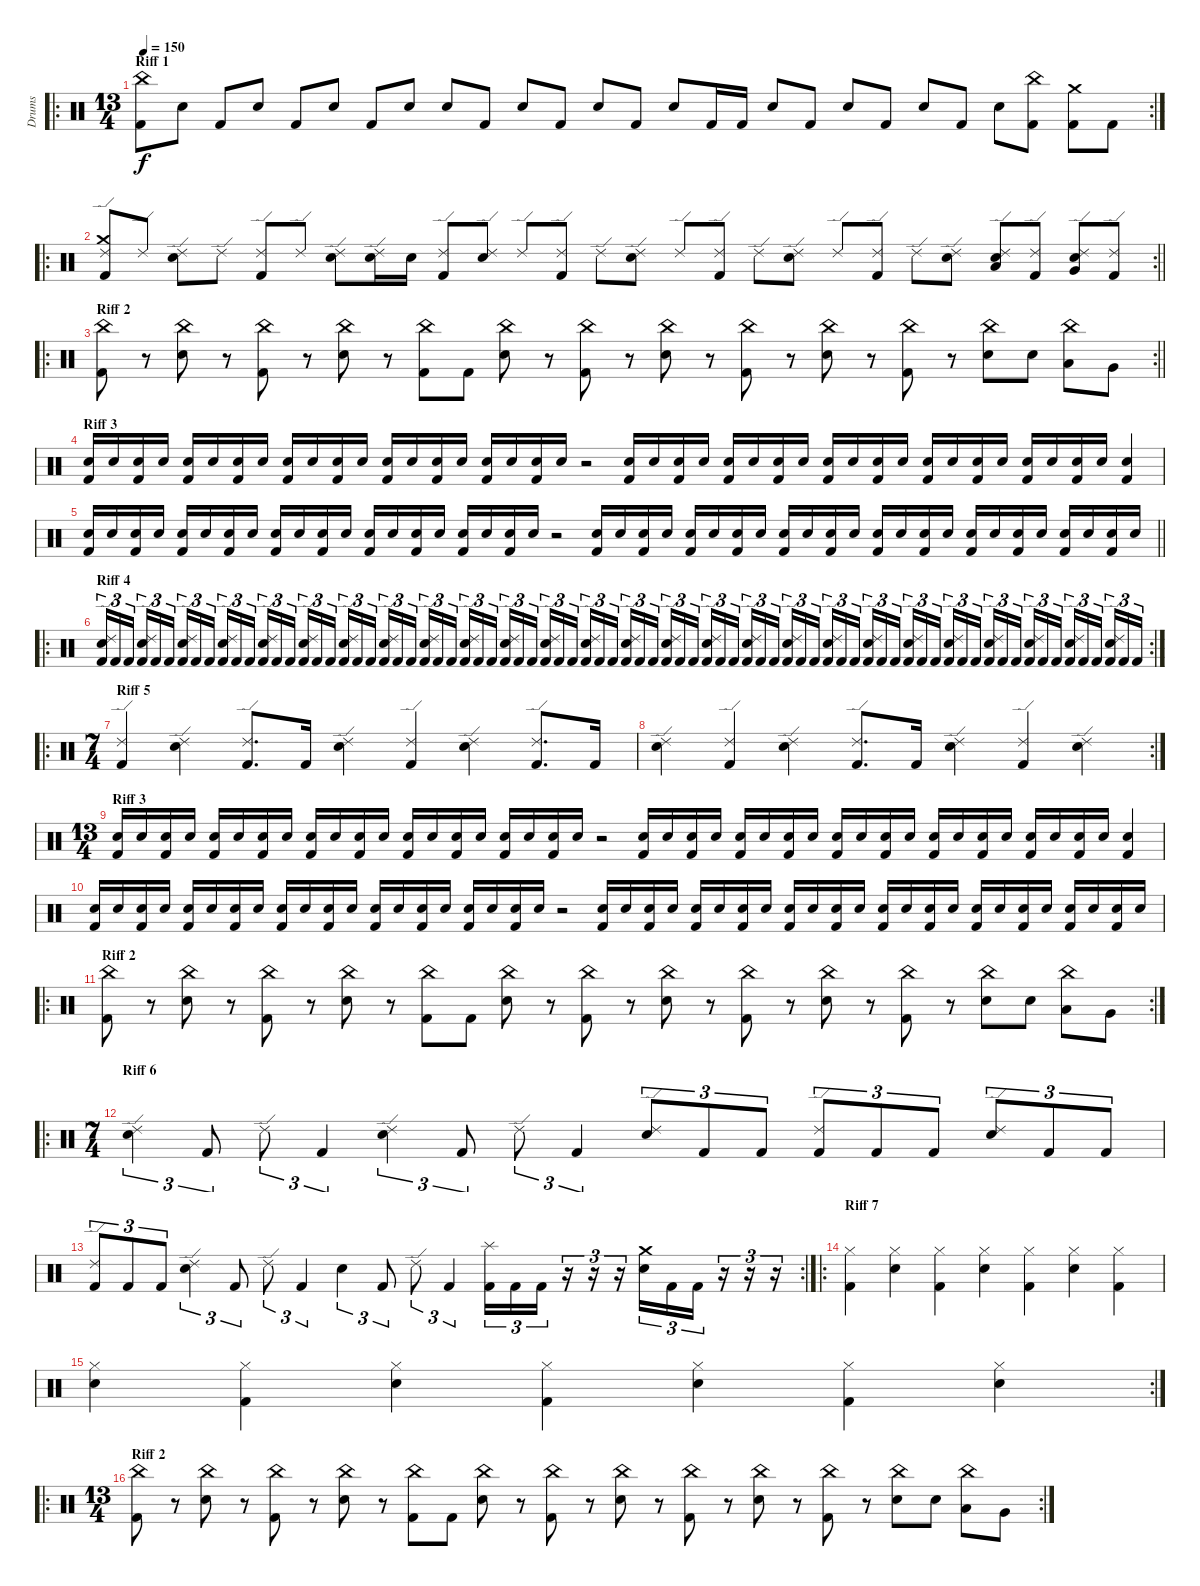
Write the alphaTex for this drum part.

\track ("Drums" "Drums") {instrument percussion}
\staff {score}
\articulation defaults
\ro
\rc 2
\ts (13 4)
\section ("" "Riff 1")
\tempo 150
\clef neutral
\ks c
("Kick (hit) 2" "China (hit)").8{dy f} "Snare (hit) 2".8 "Kick (hit) 2".8 "Snare (hit) 2".8 "Kick (hit) 2".8 "Snare (hit) 2".8 "Kick (hit) 2".8 "Snare (hit) 2".8 "Snare (hit) 2".8 "Kick (hit) 2".8 "Snare (hit) 2".8 "Kick (hit) 2".8 "Snare (hit) 2".8 "Kick (hit) 2".8 "Snare (hit) 2".8 "Kick (hit) 2".16 "Kick (hit) 2".16 "Snare (hit) 2".8 "Kick (hit) 2".8 "Snare (hit) 2".8 "Kick (hit) 2".8 "Snare (hit) 2".8 "Kick (hit) 2".8 "Snare (hit) 2".8 ("Kick (hit) 2" "China (hit)").8 ("Kick (hit) 2" "Crash medium (hit)").8 "Kick (hit) 2".8 |
\ro
\rc 2
\barLineRight lightlight
("Kick (hit) 2" "Ride (edge) 2" "Crash medium (hit)").8 "Ride (edge) 2".8 ("Snare (hit) 2" "Ride (edge) 2").8 "Ride (edge) 2".8 ("Kick (hit) 2" "Ride (edge) 2").8 "Ride (edge) 2".8 ("Snare (hit) 2" "Ride (edge) 2").8 ("Snare (hit) 2" "Ride (edge) 2").16 "Snare (hit) 2".16 ("Kick (hit) 2" "Ride (edge) 2").8 ("Snare (hit) 2" "Ride (edge) 2").8 "Ride (edge) 2".8 ("Kick (hit) 2" "Ride (edge) 2").8 "Ride (edge) 2".8 ("Snare (hit) 2" "Ride (edge) 2").8 "Ride (edge) 2".8 ("Kick (hit) 2" "Ride (edge) 2").8 "Ride (edge) 2".8 ("Snare (hit) 2" "Ride (edge) 2").8 "Ride (edge) 2".8 ("Kick (hit) 2" "Ride (edge) 2").8 "Ride (edge) 2".8 ("Snare (hit) 2" "Ride (edge) 2").8 ("Snare (hit) 2" "Ride (edge) 2" "Low Tom (hit)").8 ("Kick (hit) 2" "Ride (edge) 2").8 ("Snare (hit) 2" "Ride (edge) 2" "Very Low Tom (hit)").8 ("Kick (hit) 2" "Ride (edge) 2").8 |
\ro
\rc 2
\section ("" "Riff 2")
\barLineRight lightlight
("Kick (hit) 2" "China (hit)").8 r.8 ("Snare (hit) 2" "China (hit)").8 r.8 ("Kick (hit) 2" "China (hit)").8 r.8 ("Snare (hit) 2" "China (hit)").8 r.8 ("Kick (hit) 2" "China (hit)").8 "Kick (hit) 2".8 ("Snare (hit) 2" "China (hit)").8 r.8 ("Kick (hit) 2" "China (hit)").8 r.8 ("Snare (hit) 2" "China (hit)").8 r.8 ("Kick (hit) 2" "China (hit)").8 r.8 ("Snare (hit) 2" "China (hit)").8 r.8 ("Kick (hit) 2" "China (hit)").8 r.8 ("Snare (hit) 2" "China (hit)").8 "Snare (hit) 2".8 ("Low Tom (hit)" "China (hit)").8 "Very Low Tom (hit)".8 |
\section ("" "Riff 3")
("Kick (hit) 2" "Snare (hit) 2").16 "Snare (hit) 2".16 ("Kick (hit) 2" "Snare (hit) 2").16 "Snare (hit) 2".16 ("Kick (hit) 2" "Snare (hit) 2").16 "Snare (hit) 2".16 ("Kick (hit) 2" "Snare (hit) 2").16 "Snare (hit) 2".16 ("Kick (hit) 2" "Snare (hit) 2").16 "Snare (hit) 2".16 ("Kick (hit) 2" "Snare (hit) 2").16 "Snare (hit) 2".16 ("Kick (hit) 2" "Snare (hit) 2").16 "Snare (hit) 2".16 ("Kick (hit) 2" "Snare (hit) 2").16 "Snare (hit) 2".16 ("Kick (hit) 2" "Snare (hit) 2").16 "Snare (hit) 2".16 ("Kick (hit) 2" "Snare (hit) 2").16 "Snare (hit) 2".16 r.2 ("Kick (hit) 2" "Snare (hit) 2").16 "Snare (hit) 2".16 ("Kick (hit) 2" "Snare (hit) 2").16 "Snare (hit) 2".16 ("Kick (hit) 2" "Snare (hit) 2").16 "Snare (hit) 2".16 ("Kick (hit) 2" "Snare (hit) 2").16 "Snare (hit) 2".16 ("Kick (hit) 2" "Snare (hit) 2").16 "Snare (hit) 2".16 ("Kick (hit) 2" "Snare (hit) 2").16 "Snare (hit) 2".16 ("Kick (hit) 2" "Snare (hit) 2").16 "Snare (hit) 2".16 ("Kick (hit) 2" "Snare (hit) 2").16 "Snare (hit) 2".16 ("Kick (hit) 2" "Snare (hit) 2").16 "Snare (hit) 2".16 ("Kick (hit) 2" "Snare (hit) 2").16 "Snare (hit) 2".16 ("Kick (hit) 2" "Snare (hit) 2").4 |
\barLineRight lightlight
("Kick (hit) 2" "Snare (hit) 2").16 "Snare (hit) 2".16 ("Kick (hit) 2" "Snare (hit) 2").16 "Snare (hit) 2".16 ("Kick (hit) 2" "Snare (hit) 2").16 "Snare (hit) 2".16 ("Kick (hit) 2" "Snare (hit) 2").16 "Snare (hit) 2".16 ("Kick (hit) 2" "Snare (hit) 2").16 "Snare (hit) 2".16 ("Kick (hit) 2" "Snare (hit) 2").16 "Snare (hit) 2".16 ("Kick (hit) 2" "Snare (hit) 2").16 "Snare (hit) 2".16 ("Kick (hit) 2" "Snare (hit) 2").16 "Snare (hit) 2".16 ("Kick (hit) 2" "Snare (hit) 2").16 "Snare (hit) 2".16 ("Kick (hit) 2" "Snare (hit) 2").16 "Snare (hit) 2".16 r.2 ("Kick (hit) 2" "Snare (hit) 2").16 "Snare (hit) 2".16 ("Kick (hit) 2" "Snare (hit) 2").16 "Snare (hit) 2".16 ("Kick (hit) 2" "Snare (hit) 2").16 "Snare (hit) 2".16 ("Kick (hit) 2" "Snare (hit) 2").16 "Snare (hit) 2".16 ("Kick (hit) 2" "Snare (hit) 2").16 "Snare (hit) 2".16 ("Kick (hit) 2" "Snare (hit) 2").16 "Snare (hit) 2".16 ("Kick (hit) 2" "Snare (hit) 2").16 "Snare (hit) 2".16 ("Kick (hit) 2" "Snare (hit) 2").16 "Snare (hit) 2".16 ("Kick (hit) 2" "Snare (hit) 2").16 "Snare (hit) 2".16 ("Kick (hit) 2" "Snare (hit) 2").16 "Snare (hit) 2".16 ("Kick (hit) 2" "Snare (hit) 2").16 "Snare (hit) 2".16 ("Kick (hit) 2" "Snare (hit) 2").16 "Snare (hit) 2".16 |
\ro
\rc 2
\section ("" "Riff 4")
("Kick (hit) 2" "Snare (hit) 2" "Ride (edge) 2").16{tu (3 2)} "Kick (hit) 2".16{tu (3 2)} "Kick (hit) 2".16{tu (3 2)} ("Kick (hit) 2" "Snare (hit) 2" "Ride (edge) 2").16{tu (3 2)} "Kick (hit) 2".16{tu (3 2)} "Kick (hit) 2".16{tu (3 2)} ("Kick (hit) 2" "Snare (hit) 2" "Ride (edge) 2").16{tu (3 2)} "Kick (hit) 2".16{tu (3 2)} "Kick (hit) 2".16{tu (3 2)} ("Kick (hit) 2" "Snare (hit) 2" "Ride (edge) 2").16{tu (3 2)} "Kick (hit) 2".16{tu (3 2)} "Kick (hit) 2".16{tu (3 2)} ("Kick (hit) 2" "Snare (hit) 2" "Ride (edge) 2").16{tu (3 2)} "Kick (hit) 2".16{tu (3 2)} "Kick (hit) 2".16{tu (3 2)} ("Kick (hit) 2" "Snare (hit) 2" "Ride (edge) 2").16{tu (3 2)} "Kick (hit) 2".16{tu (3 2)} "Kick (hit) 2".16{tu (3 2)} ("Kick (hit) 2" "Snare (hit) 2" "Ride (edge) 2").16{tu (3 2)} "Kick (hit) 2".16{tu (3 2)} "Kick (hit) 2".16{tu (3 2)} ("Kick (hit) 2" "Snare (hit) 2" "Ride (edge) 2").16{tu (3 2)} "Kick (hit) 2".16{tu (3 2)} "Kick (hit) 2".16{tu (3 2)} ("Kick (hit) 2" "Snare (hit) 2" "Ride (edge) 2").16{tu (3 2)} "Kick (hit) 2".16{tu (3 2)} "Kick (hit) 2".16{tu (3 2)} ("Kick (hit) 2" "Snare (hit) 2" "Ride (edge) 2").16{tu (3 2)} "Kick (hit) 2".16{tu (3 2)} "Kick (hit) 2".16{tu (3 2)} ("Kick (hit) 2" "Snare (hit) 2" "Ride (edge) 2").16{tu (3 2)} "Kick (hit) 2".16{tu (3 2)} "Kick (hit) 2".16{tu (3 2)} ("Kick (hit) 2" "Snare (hit) 2" "Ride (edge) 2").16{tu (3 2)} "Kick (hit) 2".16{tu (3 2)} "Kick (hit) 2".16{tu (3 2)} ("Kick (hit) 2" "Snare (hit) 2" "Ride (edge) 2").16{tu (3 2)} "Kick (hit) 2".16{tu (3 2)} "Kick (hit) 2".16{tu (3 2)} ("Kick (hit) 2" "Snare (hit) 2" "Ride (edge) 2").16{tu (3 2)} "Kick (hit) 2".16{tu (3 2)} "Kick (hit) 2".16{tu (3 2)} ("Kick (hit) 2" "Snare (hit) 2" "Ride (edge) 2").16{tu (3 2)} "Kick (hit) 2".16{tu (3 2)} "Kick (hit) 2".16{tu (3 2)} ("Kick (hit) 2" "Snare (hit) 2" "Ride (edge) 2").16{tu (3 2)} "Kick (hit) 2".16{tu (3 2)} "Kick (hit) 2".16{tu (3 2)} ("Kick (hit) 2" "Snare (hit) 2" "Ride (edge) 2").16{tu (3 2)} "Kick (hit) 2".16{tu (3 2)} "Kick (hit) 2".16{tu (3 2)} ("Kick (hit) 2" "Snare (hit) 2" "Ride (edge) 2").16{tu (3 2)} "Kick (hit) 2".16{tu (3 2)} "Kick (hit) 2".16{tu (3 2)} ("Kick (hit) 2" "Ride (edge) 2" "Snare (hit) 2").16{tu (3 2)} "Kick (hit) 2".16{tu (3 2)} "Kick (hit) 2".16{tu (3 2)} ("Kick (hit) 2" "Snare (hit) 2" "Ride (edge) 2").16{tu (3 2)} "Kick (hit) 2".16{tu (3 2)} "Kick (hit) 2".16{tu (3 2)} ("Kick (hit) 2" "Snare (hit) 2" "Ride (edge) 2").16{tu (3 2)} "Kick (hit) 2".16{tu (3 2)} "Kick (hit) 2".16{tu (3 2)} ("Kick (hit) 2" "Ride (edge) 2" "Snare (hit) 2").16{tu (3 2)} "Kick (hit) 2".16{tu (3 2)} "Kick (hit) 2".16{tu (3 2)} ("Kick (hit) 2" "Snare (hit) 2" "Ride (edge) 2").16{tu (3 2)} "Kick (hit) 2".16{tu (3 2)} "Kick (hit) 2".16{tu (3 2)} ("Kick (hit) 2" "Snare (hit) 2" "Ride (edge) 2").16{tu (3 2)} "Kick (hit) 2".16{tu (3 2)} "Kick (hit) 2".16{tu (3 2)} ("Kick (hit) 2" "Snare (hit) 2" "Ride (edge) 2").16{tu (3 2)} "Kick (hit) 2".16{tu (3 2)} "Kick (hit) 2".16{tu (3 2)} ("Kick (hit) 2" "Snare (hit) 2" "Ride (edge) 2").16{tu (3 2)} "Kick (hit) 2".16{tu (3 2)} "Kick (hit) 2".16{tu (3 2)} |
\ro
\ts (7 4)
\section ("" "Riff 5")
("Ride (edge) 2" "Kick (hit) 2").4 ("Ride (edge) 2" "Snare (hit) 2").4 ("Ride (edge) 2" "Kick (hit) 2").8{d} "Kick (hit) 2".16 ("Ride (edge) 2" "Snare (hit) 2").4 ("Ride (edge) 2" "Kick (hit) 2").4 ("Ride (edge) 2" "Snare (hit) 2").4 ("Ride (edge) 2" "Kick (hit) 2").8{d} "Kick (hit) 2".16 |
\rc 2
("Ride (edge) 2" "Snare (hit) 2").4 ("Ride (edge) 2" "Kick (hit) 2").4 ("Ride (edge) 2" "Snare (hit) 2").4 ("Ride (edge) 2" "Kick (hit) 2").8{d} "Kick (hit) 2".16 ("Ride (edge) 2" "Snare (hit) 2").4 ("Ride (edge) 2" "Kick (hit) 2").4 ("Ride (edge) 2" "Snare (hit) 2").4 |
\ts (13 4)
\section ("" "Riff 3")
("Kick (hit) 2" "Snare (hit) 2").16 "Snare (hit) 2".16 ("Kick (hit) 2" "Snare (hit) 2").16 "Snare (hit) 2".16 ("Kick (hit) 2" "Snare (hit) 2").16 "Snare (hit) 2".16 ("Kick (hit) 2" "Snare (hit) 2").16 "Snare (hit) 2".16 ("Kick (hit) 2" "Snare (hit) 2").16 "Snare (hit) 2".16 ("Kick (hit) 2" "Snare (hit) 2").16 "Snare (hit) 2".16 ("Kick (hit) 2" "Snare (hit) 2").16 "Snare (hit) 2".16 ("Kick (hit) 2" "Snare (hit) 2").16 "Snare (hit) 2".16 ("Kick (hit) 2" "Snare (hit) 2").16 "Snare (hit) 2".16 ("Kick (hit) 2" "Snare (hit) 2").16 "Snare (hit) 2".16 r.2 ("Kick (hit) 2" "Snare (hit) 2").16 "Snare (hit) 2".16 ("Kick (hit) 2" "Snare (hit) 2").16 "Snare (hit) 2".16 ("Kick (hit) 2" "Snare (hit) 2").16 "Snare (hit) 2".16 ("Kick (hit) 2" "Snare (hit) 2").16 "Snare (hit) 2".16 ("Kick (hit) 2" "Snare (hit) 2").16 "Snare (hit) 2".16 ("Kick (hit) 2" "Snare (hit) 2").16 "Snare (hit) 2".16 ("Kick (hit) 2" "Snare (hit) 2").16 "Snare (hit) 2".16 ("Kick (hit) 2" "Snare (hit) 2").16 "Snare (hit) 2".16 ("Kick (hit) 2" "Snare (hit) 2").16 "Snare (hit) 2".16 ("Kick (hit) 2" "Snare (hit) 2").16 "Snare (hit) 2".16 ("Kick (hit) 2" "Snare (hit) 2").4 |
("Kick (hit) 2" "Snare (hit) 2").16 "Snare (hit) 2".16 ("Kick (hit) 2" "Snare (hit) 2").16 "Snare (hit) 2".16 ("Kick (hit) 2" "Snare (hit) 2").16 "Snare (hit) 2".16 ("Kick (hit) 2" "Snare (hit) 2").16 "Snare (hit) 2".16 ("Kick (hit) 2" "Snare (hit) 2").16 "Snare (hit) 2".16 ("Kick (hit) 2" "Snare (hit) 2").16 "Snare (hit) 2".16 ("Kick (hit) 2" "Snare (hit) 2").16 "Snare (hit) 2".16 ("Kick (hit) 2" "Snare (hit) 2").16 "Snare (hit) 2".16 ("Kick (hit) 2" "Snare (hit) 2").16 "Snare (hit) 2".16 ("Kick (hit) 2" "Snare (hit) 2").16 "Snare (hit) 2".16 r.2 ("Kick (hit) 2" "Snare (hit) 2").16 "Snare (hit) 2".16 ("Kick (hit) 2" "Snare (hit) 2").16 "Snare (hit) 2".16 ("Kick (hit) 2" "Snare (hit) 2").16 "Snare (hit) 2".16 ("Kick (hit) 2" "Snare (hit) 2").16 "Snare (hit) 2".16 ("Kick (hit) 2" "Snare (hit) 2").16 "Snare (hit) 2".16 ("Kick (hit) 2" "Snare (hit) 2").16 "Snare (hit) 2".16 ("Kick (hit) 2" "Snare (hit) 2").16 "Snare (hit) 2".16 ("Kick (hit) 2" "Snare (hit) 2").16 "Snare (hit) 2".16 ("Kick (hit) 2" "Snare (hit) 2").16 "Snare (hit) 2".16 ("Kick (hit) 2" "Snare (hit) 2").16 "Snare (hit) 2".16 ("Kick (hit) 2" "Snare (hit) 2").16 "Snare (hit) 2".16 ("Kick (hit) 2" "Snare (hit) 2").16 "Snare (hit) 2".16 |
\ro
\rc 2
\section ("" "Riff 2")
("Kick (hit) 2" "China (hit)").8 r.8 ("Snare (hit) 2" "China (hit)").8 r.8 ("Kick (hit) 2" "China (hit)").8 r.8 ("Snare (hit) 2" "China (hit)").8 r.8 ("Kick (hit) 2" "China (hit)").8 "Kick (hit) 2".8 ("Snare (hit) 2" "China (hit)").8 r.8 ("Kick (hit) 2" "China (hit)").8 r.8 ("Snare (hit) 2" "China (hit)").8 r.8 ("Kick (hit) 2" "China (hit)").8 r.8 ("Snare (hit) 2" "China (hit)").8 r.8 ("Kick (hit) 2" "China (hit)").8 r.8 ("Snare (hit) 2" "China (hit)").8 "Snare (hit) 2".8 ("Low Tom (hit)" "China (hit)").8 "Very Low Tom (hit)".8 |
\ro
\ts (7 4)
\section ("" "Riff 6")
("Ride (edge) 2" "Snare (hit) 2").4{tu (3 2)} "Kick (hit) 2".8{tu (3 2)} "Ride (edge) 2".8{tu (3 2)} "Kick (hit) 2".4{tu (3 2)} ("Ride (edge) 2" "Snare (hit) 2").4{tu (3 2)} "Kick (hit) 2".8{tu (3 2)} "Ride (edge) 2".8{tu (3 2)} "Kick (hit) 2".4{tu (3 2)} ("Ride (edge) 2" "Snare (hit) 2").8{tu (3 2)} "Kick (hit) 2".8{tu (3 2)} "Kick (hit) 2".8{tu (3 2)} ("Ride (edge) 2" "Kick (hit) 2").8{tu (3 2)} "Kick (hit) 2".8{tu (3 2)} "Kick (hit) 2".8{tu (3 2)} ("Ride (edge) 2" "Snare (hit) 2").8{tu (3 2)} "Kick (hit) 2".8{tu (3 2)} "Kick (hit) 2".8{tu (3 2)} |
\rc 2
("Ride (edge) 2" "Kick (hit) 2").8{tu (3 2)} "Kick (hit) 2".8{tu (3 2)} "Kick (hit) 2".8{tu (3 2)} ("Ride (edge) 2" "Snare (hit) 2").4{tu (3 2)} "Kick (hit) 2".8{tu (3 2)} "Ride (edge) 2".8{tu (3 2)} "Kick (hit) 2".4{tu (3 2)} "Snare (hit) 2".4{tu (3 2)} "Kick (hit) 2".8{tu (3 2)} "Ride (edge) 2".8{tu (3 2)} "Kick (hit) 2".4{tu (3 2)} ("Splash (hit)" "Kick (hit) 2").16{tu (3 2)} "Kick (hit) 2".16{tu (3 2)} "Kick (hit) 2".16{tu (3 2)} r.16{tu (3 2)} r.16{tu (3 2)} r.16{tu (3 2)} ("Crash medium (hit)" "Snare (hit) 2").16{tu (3 2)} "Kick (hit) 2".16{tu (3 2)} "Kick (hit) 2".16{tu (3 2)} r.16{tu (3 2)} r.16{tu (3 2)} r.16{tu (3 2)} |
\ro
\section ("" "Riff 7")
("Hi-Hat (closed)" "Kick (hit) 2").4 ("Hi-Hat (closed)" "Snare (hit) 2").4 ("Hi-Hat (closed)" "Kick (hit) 2").4 ("Hi-Hat (closed)" "Snare (hit) 2").4 ("Hi-Hat (closed)" "Kick (hit) 2").4 ("Hi-Hat (closed)" "Snare (hit) 2").4 ("Hi-Hat (closed)" "Kick (hit) 2").4 |
\rc 2
("Hi-Hat (closed)" "Snare (hit) 2").4 ("Hi-Hat (closed)" "Kick (hit) 2").4 ("Hi-Hat (closed)" "Snare (hit) 2").4 ("Hi-Hat (closed)" "Kick (hit) 2").4 ("Hi-Hat (closed)" "Snare (hit) 2").4 ("Hi-Hat (closed)" "Kick (hit) 2").4 ("Hi-Hat (closed)" "Snare (hit) 2").4 |
\ro
\rc 2
\ts (13 4)
\section ("" "Riff 2")
("Kick (hit) 2" "China (hit)").8 r.8 ("Snare (hit) 2" "China (hit)").8 r.8 ("Kick (hit) 2" "China (hit)").8 r.8 ("Snare (hit) 2" "China (hit)").8 r.8 ("Kick (hit) 2" "China (hit)").8 "Kick (hit) 2".8 ("Snare (hit) 2" "China (hit)").8 r.8 ("Kick (hit) 2" "China (hit)").8 r.8 ("Snare (hit) 2" "China (hit)").8 r.8 ("Kick (hit) 2" "China (hit)").8 r.8 ("Snare (hit) 2" "China (hit)").8 r.8 ("Kick (hit) 2" "China (hit)").8 r.8 ("Snare (hit) 2" "China (hit)").8 "Snare (hit) 2".8 ("Low Tom (hit)" "China (hit)").8 "Very Low Tom (hit)".8
